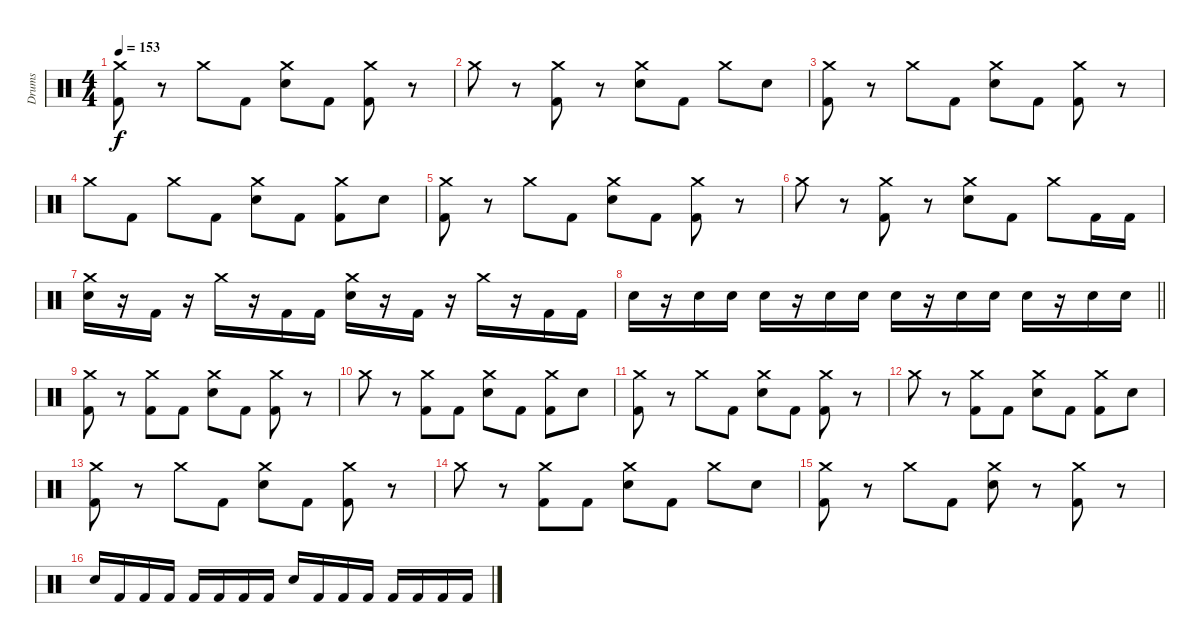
\track ("Drums" "Drums") {instrument percussion}
\staff {score}
\articulation defaults
\ts (4 4)
\tempo 153
\clef neutral
\ks c
("Crash medium (hit)" "Kick (hit) 2").8{dy f} r.8 "Crash medium (hit)".8 "Kick (hit) 2".8 ("Crash medium (hit)" "Electric Snare (hit)").8 "Kick (hit) 2".8 ("Crash medium (hit)" "Kick (hit) 2").8 r.8 |
"Crash medium (hit)".8 r.8 ("Crash medium (hit)" "Kick (hit) 2").8 r.8 ("Crash medium (hit)" "Electric Snare (hit)").8 "Kick (hit) 2".8 "Crash medium (hit)".8 "Electric Snare (hit)".8 |
("Crash medium (hit)" "Kick (hit) 2").8 r.8 "Crash medium (hit)".8 "Kick (hit) 2".8 ("Crash medium (hit)" "Electric Snare (hit)").8 "Kick (hit) 2".8 ("Crash medium (hit)" "Kick (hit) 2").8 r.8 |
"Crash medium (hit)".8 "Kick (hit) 2".8 "Crash medium (hit)".8 "Kick (hit) 2".8 ("Crash medium (hit)" "Electric Snare (hit)").8 "Kick (hit) 2".8 ("Crash medium (hit)" "Kick (hit) 2").8 "Electric Snare (hit)".8 |
("Crash medium (hit)" "Kick (hit) 2").8 r.8 "Crash medium (hit)".8 "Kick (hit) 2".8 ("Crash medium (hit)" "Electric Snare (hit)").8 "Kick (hit) 2".8 ("Crash medium (hit)" "Kick (hit) 2").8 r.8 |
"Crash medium (hit)".8 r.8 ("Crash medium (hit)" "Kick (hit) 2").8 r.8 ("Crash medium (hit)" "Electric Snare (hit)").8 "Kick (hit) 2".8 "Crash medium (hit)".8 "Kick (hit) 2".16 "Kick (hit) 2".16 |
("Crash medium (hit)" "Electric Snare (hit)").16 r.16 "Kick (hit) 2".16 r.16 "Crash medium (hit)".16 r.16 "Kick (hit) 2".16 "Kick (hit) 2".16 ("Crash medium (hit)" "Electric Snare (hit)").16 r.16 "Kick (hit) 2".16 r.16 "Crash medium (hit)".16 r.16 "Kick (hit) 2".16 "Kick (hit) 2".16 |
\barLineRight lightlight "Electric Snare (hit)".16
r.16 "Electric Snare (hit)".16 "Electric Snare (hit)".16 "Electric Snare (hit)".16 r.16 "Electric Snare (hit)".16 "Electric Snare (hit)".16 "Electric Snare (hit)".16 r.16 "Electric Snare (hit)".16 "Electric Snare (hit)".16 "Electric Snare (hit)".16 r.16 "Electric Snare (hit)".16 "Electric Snare (hit)".16 |
\section ("" "")
("Crash medium (hit)" "Kick (hit) 2").8 r.8 ("Crash medium (hit)" "Kick (hit) 2").8 "Kick (hit) 2".8 ("Crash medium (hit)" "Electric Snare (hit)").8 "Kick (hit) 2".8 ("Crash medium (hit)" "Kick (hit) 2").8 r.8 |
"Crash medium (hit)".8 r.8 ("Crash medium (hit)" "Kick (hit) 2").8 "Kick (hit) 2".8 ("Crash medium (hit)" "Electric Snare (hit)").8 "Kick (hit) 2".8 ("Crash medium (hit)" "Kick (hit) 2").8 "Electric Snare (hit)".8 |
("Crash medium (hit)" "Kick (hit) 2").8 r.8 "Crash medium (hit)".8 "Kick (hit) 2".8 ("Crash medium (hit)" "Electric Snare (hit)").8 "Kick (hit) 2".8 ("Crash medium (hit)" "Kick (hit) 2").8 r.8 |
"Crash medium (hit)".8 r.8 ("Crash medium (hit)" "Kick (hit) 2").8 "Kick (hit) 2".8 ("Crash medium (hit)" "Electric Snare (hit)").8 "Kick (hit) 2".8 ("Crash medium (hit)" "Kick (hit) 2").8 "Electric Snare (hit)".8 |
("Crash medium (hit)" "Kick (hit) 2").8 r.8 "Crash medium (hit)".8 "Kick (hit) 2".8 ("Crash medium (hit)" "Electric Snare (hit)").8 "Kick (hit) 2".8 ("Crash medium (hit)" "Kick (hit) 2").8 r.8 |
"Crash medium (hit)".8 r.8 ("Crash medium (hit)" "Kick (hit) 2").8 "Kick (hit) 2".8 ("Crash medium (hit)" "Electric Snare (hit)").8 "Kick (hit) 2".8 "Crash medium (hit)".8 "Electric Snare (hit)".8 |
("Crash medium (hit)" "Kick (hit) 2").8 r.8 "Crash medium (hit)".8 "Kick (hit) 2".8 ("Crash medium (hit)" "Electric Snare (hit)").8 r.8 ("Crash medium (hit)" "Kick (hit) 2").8 r.8 |
"Electric Snare (hit)".16 "Kick (hit) 2".16 "Kick (hit) 2".16 "Kick (hit) 2".16 "Kick (hit) 2".16 "Kick (hit) 2".16 "Kick (hit) 2".16 "Kick (hit) 2".16 "Electric Snare (hit)".16 "Kick (hit) 2".16 "Kick (hit) 2".16 "Kick (hit) 2".16 "Kick (hit) 2".16 "Kick (hit) 2".16 "Kick (hit) 2".16 "Kick (hit) 2".16
